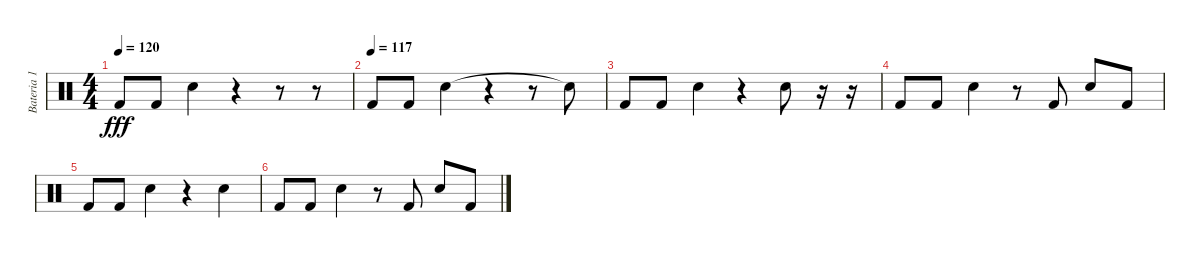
\track ("Bateria 1" "Bateria 1") {instrument percussion}
\staff {score}
\articulation defaults
\ts (4 4)
\tempo 120
\clef neutral
\ks c "Kick (hit) 2".8{dy fff} "Kick (hit) 2".8 "Electric Snare (hit)".4
r.4 r.8 r.8 |
\tempo (117)
"Kick (hit) 2".8 "Kick (hit) 2".8 "Electric Snare (hit)".4 r.4 r.8 "Snare (hit)"{t}.8 |
"Kick (hit) 2".8 "Kick (hit) 2".8 "Electric Snare (hit)".4 r.4 "Electric Snare (hit)".8 r.16 r.16 |
"Kick (hit) 2".8 "Kick (hit) 2".8 "Electric Snare (hit)".4 r.8 "Kick (hit) 2".8 "Electric Snare (hit)".8 "Kick (hit) 2".8 |
"Kick (hit) 2".8 "Kick (hit) 2".8 "Electric Snare (hit)".4 r.4 "Electric Snare (hit)".4 |
"Kick (hit) 2".8 "Kick (hit) 2".8 "Electric Snare (hit)".4 r.8 "Kick (hit) 2".8 "Electric Snare (hit)".8 "Kick (hit) 2".8
